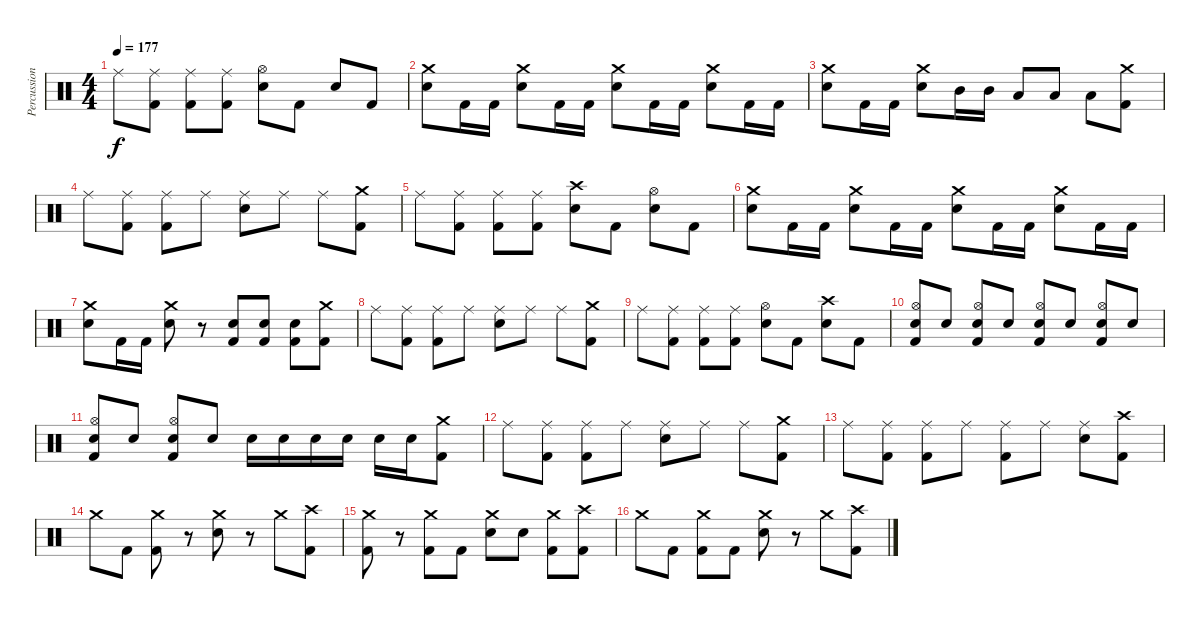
\track ("Percussion" "Percussion") {instrument percussion}
\staff {score}
\articulation defaults
\ts (4 4)
\tempo 177
\clef neutral
\ks c "Ride (middle)".8{dy f}
("Ride (middle)" "Kick (hit) 2").8 ("Ride (middle)" "Kick (hit) 2").8 ("Ride (middle)" "Kick (hit) 2").8 ("Hi-Hat (open)" "Snare (hit) 2").8 "Kick (hit) 2".8 "Snare (hit) 2".8 "Kick (hit) 2".8 |
("Crash medium (hit)" "Snare (hit) 2").8 "Kick (hit) 2".16 "Kick (hit) 2".16 ("Crash medium (hit)" "Snare (hit) 2").8 "Kick (hit) 2".16 "Kick (hit) 2".16 ("Crash medium (hit)" "Snare (hit) 2").8 "Kick (hit) 2".16 "Kick (hit) 2".16 ("Crash medium (hit)" "Snare (hit) 2").8 "Kick (hit) 2".16 "Kick (hit) 2".16 |
("Crash medium (hit)" "Snare (hit) 2").8 "Kick (hit) 2".16 "Kick (hit) 2".16 ("Crash medium (hit)" "Snare (hit) 2").8 "Mid Tom (hit)".16 "Mid Tom (hit)".16 "Low Tom (hit)".8 "Low Tom (hit)".8 "Low Tom (hit)".8 ("Crash medium (hit)" "Kick (hit) 2").8 |
"Ride (middle)".8 ("Ride (middle)" "Kick (hit) 2").8 ("Ride (middle)" "Kick (hit) 2").8 "Ride (middle)".8 ("Ride (middle)" "Snare (hit) 2").8 "Ride (middle)".8 "Ride (middle)".8 ("Crash medium (hit)" "Kick (hit) 2").8 |
"Ride (middle)".8 ("Ride (middle)" "Kick (hit) 2").8 ("Ride (middle)" "Kick (hit) 2").8 ("Ride (middle)" "Kick (hit) 2").8 ("Crash high (hit)" "Snare (hit) 2").8 "Kick (hit) 2".8 ("Hi-Hat (open)" "Snare (hit) 2").8 "Kick (hit) 2".8 |
("Crash medium (hit)" "Snare (hit) 2").8 "Kick (hit) 2".16 "Kick (hit) 2".16 ("Crash medium (hit)" "Snare (hit) 2").8 "Kick (hit) 2".16 "Kick (hit) 2".16 ("Crash medium (hit)" "Snare (hit) 2").8 "Kick (hit) 2".16 "Kick (hit) 2".16 ("Crash medium (hit)" "Snare (hit) 2").8 "Kick (hit) 2".16 "Kick (hit) 2".16 |
("Crash medium (hit)" "Snare (hit) 2").8 "Kick (hit) 2".16 "Kick (hit) 2".16 ("Crash medium (hit)" "Snare (hit) 2").8 r.8 ("Snare (hit) 2" "Kick (hit) 2").8 ("Snare (hit) 2" "Kick (hit) 2").8 ("Snare (hit) 2" "Kick (hit) 2").8 ("Crash medium (hit)" "Kick (hit) 2").8 |
"Ride (middle)".8 ("Ride (middle)" "Kick (hit) 2").8 ("Ride (middle)" "Kick (hit) 2").8 "Ride (middle)".8 ("Ride (middle)" "Snare (hit) 2").8 "Ride (middle)".8 "Ride (middle)".8 ("Crash medium (hit)" "Kick (hit) 2").8 |
"Ride (middle)".8 ("Ride (middle)" "Kick (hit) 2").8 ("Ride (middle)" "Kick (hit) 2").8 ("Ride (middle)" "Kick (hit) 2").8 ("Hi-Hat (open)" "Snare (hit) 2").8 "Kick (hit) 2".8 ("Crash high (hit)" "Snare (hit) 2").8 "Kick (hit) 2".8 |
("Hi-Hat (open)" "Snare (hit) 2" "Kick (hit) 2").8 "Snare (hit) 2".8 ("Hi-Hat (open)" "Snare (hit) 2" "Kick (hit) 2").8 "Snare (hit) 2".8 ("Hi-Hat (open)" "Snare (hit) 2" "Kick (hit) 2").8 "Snare (hit) 2".8 ("Hi-Hat (open)" "Snare (hit) 2" "Kick (hit) 2").8 "Snare (hit) 2".8 |
("Hi-Hat (open)" "Snare (hit) 2" "Kick (hit) 2").8 "Snare (hit) 2".8 ("Hi-Hat (open)" "Snare (hit) 2" "Kick (hit) 2").8 "Snare (hit) 2".8 "Snare (hit) 2".16 "Snare (hit) 2".16 "Snare (hit) 2".16 "Snare (hit) 2".16 "Snare (hit) 2".16 "Snare (hit) 2".16 ("Crash medium (hit)" "Kick (hit) 2").8 |
"Ride (middle)".8 ("Ride (middle)" "Kick (hit) 2").8 ("Ride (middle)" "Kick (hit) 2").8 "Ride (middle)".8 ("Ride (middle)" "Snare (hit) 2").8 "Ride (middle)".8 "Ride (middle)".8 ("Crash medium (hit)" "Kick (hit) 2").8 |
"Ride (middle)".8 ("Ride (middle)" "Kick (hit) 2").8 ("Ride (middle)" "Kick (hit) 2").8 "Ride (middle)".8 ("Ride (middle)" "Kick (hit) 2").8 "Ride (middle)".8 ("Ride (middle)" "Snare (hit) 2").8 ("Crash high (hit)" "Kick (hit) 2").8 |
"Crash medium (hit)".8 "Kick (hit) 2".8 ("Crash medium (hit)" "Kick (hit) 2").8 r.8 ("Crash medium (hit)" "Snare (hit) 2").8 r.8 "Crash medium (hit)".8 ("Crash high (hit)" "Kick (hit) 2").8 |
("Crash medium (hit)" "Kick (hit) 2").8 r.8 ("Crash medium (hit)" "Kick (hit) 2").8 "Kick (hit) 2".8 ("Crash medium (hit)" "Snare (hit) 2").8 "Snare (hit) 2".8 ("Crash medium (hit)" "Kick (hit) 2").8 ("Crash high (hit)" "Kick (hit) 2").8 |
"Crash medium (hit)".8 "Kick (hit) 2".8 ("Crash medium (hit)" "Kick (hit) 2").8 "Kick (hit) 2".8 ("Crash medium (hit)" "Snare (hit) 2").8 r.8 "Crash medium (hit)".8 ("Crash high (hit)" "Kick (hit) 2").8
